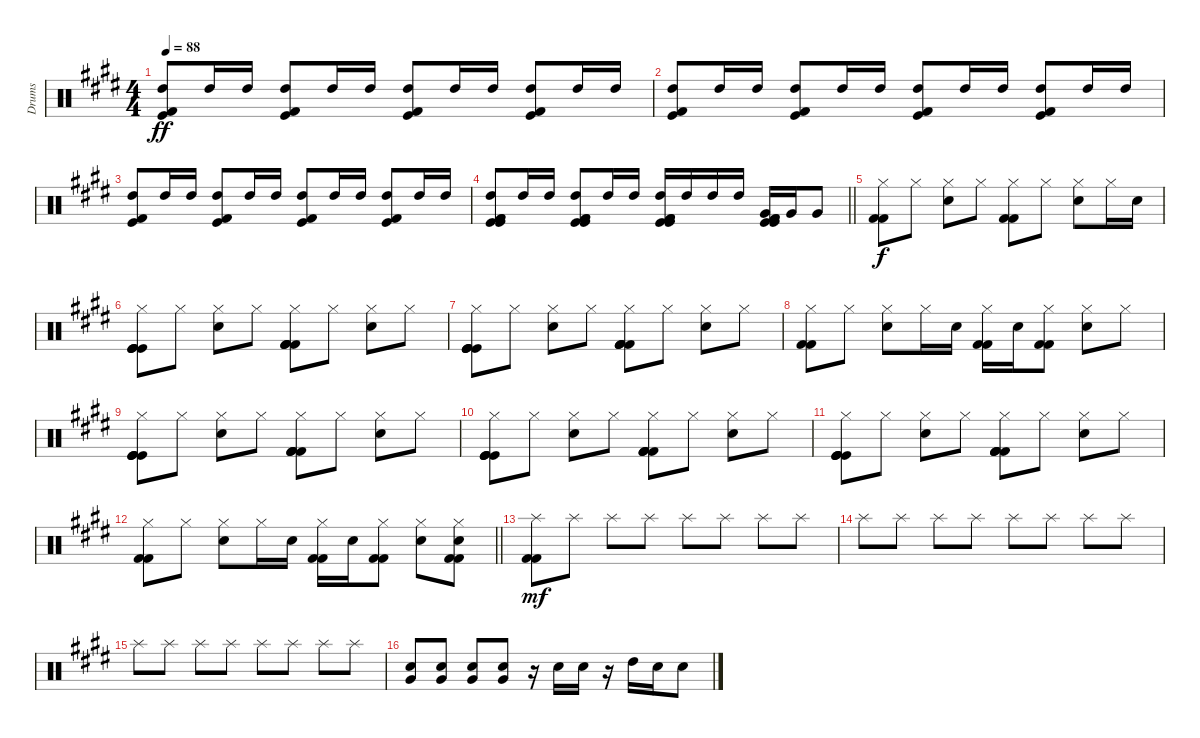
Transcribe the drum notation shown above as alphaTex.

\track ("Drums" "Drums") {instrument percussion}
\staff {score}
\articulation defaults
\ts (4 4)
\tempo 88
\clef neutral
\ks e
("Kick (hit)" "Kick (hit) 2" "High Tom (hit)").8{dy ff} "High Tom (hit)".16 "High Tom (hit)".16 ("Kick (hit)" "Kick (hit) 2" "High Tom (hit)").8 "High Tom (hit)".16 "High Tom (hit)".16 ("Kick (hit)" "Kick (hit) 2" "High Tom (hit)").8 "High Tom (hit)".16 "High Tom (hit)".16 ("Kick (hit)" "Kick (hit) 2" "High Tom (hit)").8 "High Tom (hit)".16 "High Tom (hit)".16 |
("Kick (hit)" "Kick (hit) 2" "High Tom (hit)").8 "High Tom (hit)".16 "High Tom (hit)".16 ("Kick (hit)" "Kick (hit) 2" "High Tom (hit)").8 "High Tom (hit)".16 "High Tom (hit)".16 ("Kick (hit)" "Kick (hit) 2" "High Tom (hit)").8 "High Tom (hit)".16 "High Tom (hit)".16 ("Kick (hit)" "Kick (hit) 2" "High Tom (hit)").8 "High Tom (hit)".16 "High Tom (hit)".16 |
("Kick (hit)" "Kick (hit) 2" "High Tom (hit)").8 "High Tom (hit)".16 "High Tom (hit)".16 ("Kick (hit)" "Kick (hit) 2" "High Tom (hit)").8 "High Tom (hit)".16 "High Tom (hit)".16 ("Kick (hit)" "Kick (hit) 2" "High Tom (hit)").8 "High Tom (hit)".16 "High Tom (hit)".16 ("Kick (hit)" "Kick (hit) 2" "High Tom (hit)").8 "High Tom (hit)".16 "High Tom (hit)".16 |
\barLineRight lightlight
("Kick (hit) 2" "Kick (hit)" "Kick (hit)" "Kick (hit) 2" "High Tom (hit)").8 "High Tom (hit)".16 "High Tom (hit)".16 ("Kick (hit) 2" "Kick (hit) 2" "Kick (hit)" "Kick (hit)" "High Tom (hit)").8 "High Tom (hit)".16 "High Tom (hit)".16 ("Kick (hit)" "Kick (hit) 2" "Kick (hit)" "Kick (hit) 2" "High Tom (hit)").16 "High Tom (hit)".16 "High Tom (hit)".16 "High Tom (hit)".16 ("Kick (hit) 2" "Kick (hit)" "Kick (hit)" "Kick (hit) 2" "Very Low Tom (hit)").16 "Very Low Tom (hit)".16 "Very Low Tom (hit)".8 |
("Hi-Hat (closed)" "Kick (hit) 2" "Kick (hit) 2").8{dy f} "Hi-Hat (closed)".8 ("Hi-Hat (closed)" "Snare (hit) 2").8 "Hi-Hat (closed)".8 ("Hi-Hat (closed)" "Kick (hit) 2" "Kick (hit) 2").8 "Hi-Hat (closed)".8 ("Hi-Hat (closed)" "Snare (hit) 2").8 "Hi-Hat (closed)".16 "Snare (hit) 2".16 |
("Hi-Hat (closed)" "Kick (hit)" "Kick (hit)" "Kick (hit)" "Kick (hit)").8 "Hi-Hat (closed)".8 ("Hi-Hat (closed)" "Snare (hit) 2").8 "Hi-Hat (closed)".8 ("Hi-Hat (closed)" "Kick (hit) 2" "Kick (hit) 2" "Kick (hit) 2" "Kick (hit) 2").8 "Hi-Hat (closed)".8 ("Hi-Hat (closed)" "Snare (hit) 2").8 "Hi-Hat (closed)".8 |
("Hi-Hat (closed)" "Kick (hit)" "Kick (hit)" "Kick (hit)" "Kick (hit)").8 "Hi-Hat (closed)".8 ("Hi-Hat (closed)" "Snare (hit) 2").8 "Hi-Hat (closed)".8 ("Hi-Hat (closed)" "Kick (hit) 2" "Kick (hit) 2" "Kick (hit) 2" "Kick (hit) 2").8 "Hi-Hat (closed)".8 ("Hi-Hat (closed)" "Snare (hit) 2").8 "Hi-Hat (closed)".8 |
("Hi-Hat (closed)" "Kick (hit) 2" "Kick (hit) 2").8 "Hi-Hat (closed)".8 ("Hi-Hat (closed)" "Snare (hit) 2").8 "Hi-Hat (closed)".16 "Snare (hit) 2".16 ("Hi-Hat (closed)" "Kick (hit) 2" "Kick (hit) 2").16 "Snare (hit) 2".16 ("Hi-Hat (closed)" "Kick (hit) 2" "Kick (hit) 2").8 ("Hi-Hat (closed)" "Snare (hit) 2").8 "Hi-Hat (closed)".8 |
("Hi-Hat (closed)" "Kick (hit)" "Kick (hit)" "Kick (hit)" "Kick (hit)").8 "Hi-Hat (closed)".8 ("Hi-Hat (closed)" "Snare (hit) 2").8 "Hi-Hat (closed)".8 ("Hi-Hat (closed)" "Kick (hit) 2" "Kick (hit) 2" "Kick (hit) 2" "Kick (hit) 2").8 "Hi-Hat (closed)".8 ("Hi-Hat (closed)" "Snare (hit) 2").8 "Hi-Hat (closed)".8 |
("Hi-Hat (closed)" "Kick (hit)" "Kick (hit)" "Kick (hit)" "Kick (hit)").8 "Hi-Hat (closed)".8 ("Hi-Hat (closed)" "Snare (hit) 2").8 "Hi-Hat (closed)".8 ("Hi-Hat (closed)" "Kick (hit) 2" "Kick (hit) 2" "Kick (hit) 2" "Kick (hit) 2").8 "Hi-Hat (closed)".8 ("Hi-Hat (closed)" "Snare (hit) 2").8 "Hi-Hat (closed)".8 |
("Hi-Hat (closed)" "Kick (hit)" "Kick (hit)" "Kick (hit)" "Kick (hit)").8 "Hi-Hat (closed)".8 ("Hi-Hat (closed)" "Snare (hit) 2").8 "Hi-Hat (closed)".8 ("Hi-Hat (closed)" "Kick (hit) 2" "Kick (hit) 2" "Kick (hit) 2" "Kick (hit) 2").8 "Hi-Hat (closed)".8 ("Hi-Hat (closed)" "Snare (hit) 2").8 "Hi-Hat (closed)".8 |
\barLineRight lightlight
("Hi-Hat (closed)" "Kick (hit) 2" "Kick (hit) 2").8 "Hi-Hat (closed)".8 ("Hi-Hat (closed)" "Snare (hit) 2").8 "Hi-Hat (closed)".16 "Snare (hit) 2".16 ("Hi-Hat (closed)" "Kick (hit) 2" "Kick (hit) 2").16 "Snare (hit) 2".16 ("Hi-Hat (closed)" "Kick (hit) 2" "Kick (hit) 2").8 ("Hi-Hat (closed)" "Snare (hit) 2").8 ("Hi-Hat (closed)" "Snare (hit) 2" "Kick (hit) 2" "Kick (hit) 2").8 |
("Splash (hit)" "Kick (hit) 2" "Kick (hit) 2").8{dy mf} "Splash (hit)".8 "Splash (hit)".8 "Splash (hit)".8 "Splash (hit)".8 "Splash (hit)".8 "Splash (hit)".8 "Splash (hit)".8 |
"Splash (hit)".8 "Splash (hit)".8 "Splash (hit)".8 "Splash (hit)".8 "Splash (hit)".8 "Splash (hit)".8 "Splash (hit)".8 "Splash (hit)".8 |
"Splash (hit)".8 "Splash (hit)".8 "Splash (hit)".8 "Splash (hit)".8 "Splash (hit)".8 "Splash (hit)".8 "Splash (hit)".8 "Splash (hit)".8 |
("Snare (hit) 2" "Very Low Tom (hit)").8 ("Snare (hit) 2" "Very Low Tom (hit)").8 ("Snare (hit) 2" "Very Low Tom (hit)").8 ("Snare (hit) 2" "Very Low Tom (hit)").8 r.16 "Snare (hit) 2".16 "Snare (hit) 2".16 r.16 "High Tom (hit)".16 "Snare (hit) 2".16 "Snare (hit) 2".8
